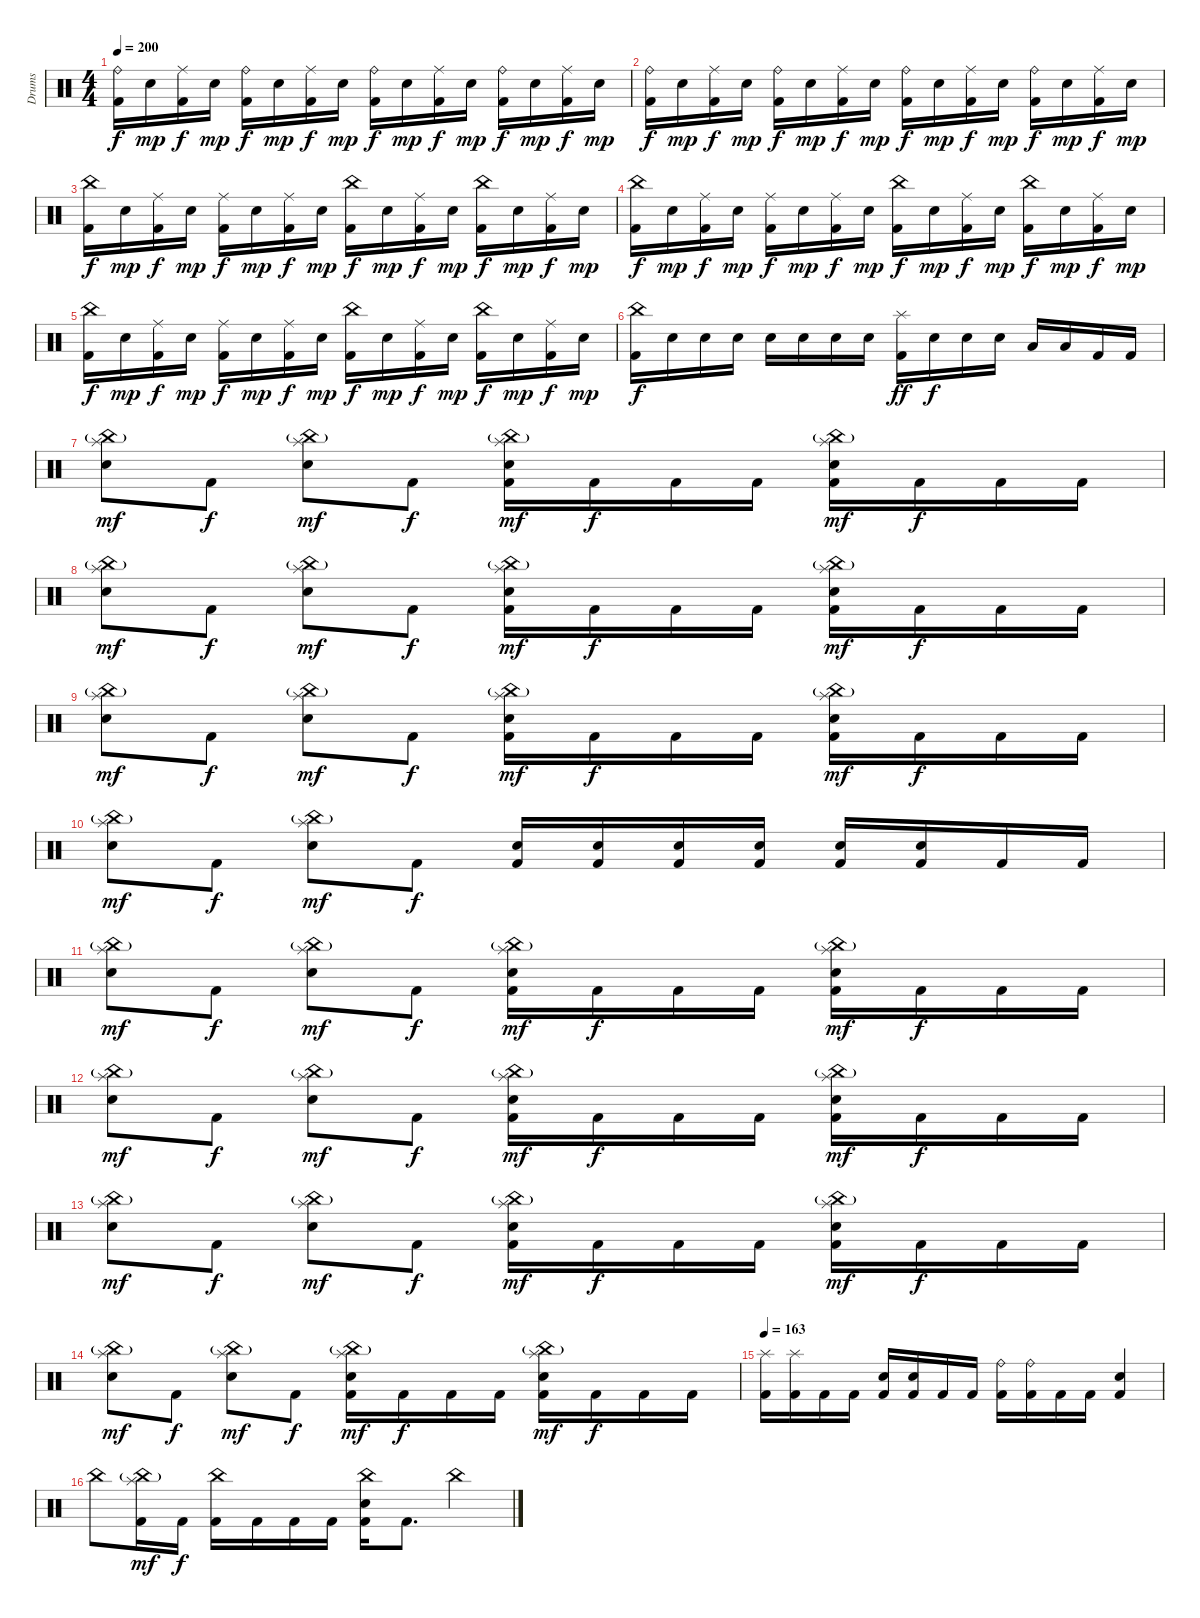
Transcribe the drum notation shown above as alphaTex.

\track ("Drums" "Drums") {instrument percussion}
\staff {score}
\articulation defaults
\ts (4 4)
\tempo 200
\clef neutral
\ks c
("Ride (bell)" "Kick (hit) 2").16{dy f} "Electric Snare (hit)".16{dy mp} ("Ride (middle)" "Kick (hit) 2").16{dy f} "Electric Snare (hit)".16{dy mp} ("Ride (bell)" "Kick (hit) 2").16{dy f} "Electric Snare (hit)".16{dy mp} ("Ride (middle)" "Kick (hit) 2").16{dy f} "Electric Snare (hit)".16{dy mp} ("Ride (bell)" "Kick (hit) 2").16{dy f} "Electric Snare (hit)".16{dy mp} ("Ride (middle)" "Kick (hit) 2").16{dy f} "Electric Snare (hit)".16{dy mp} ("Ride (bell)" "Kick (hit) 2").16{dy f} "Electric Snare (hit)".16{dy mp} ("Ride (middle)" "Kick (hit) 2").16{dy f} "Electric Snare (hit)".16{dy mp} |
("Ride (bell)" "Kick (hit) 2").16{dy f} "Electric Snare (hit)".16{dy mp} ("Ride (middle)" "Kick (hit) 2").16{dy f} "Electric Snare (hit)".16{dy mp} ("Ride (bell)" "Kick (hit) 2").16{dy f} "Electric Snare (hit)".16{dy mp} ("Ride (middle)" "Kick (hit) 2").16{dy f} "Electric Snare (hit)".16{dy mp} ("Ride (bell)" "Kick (hit) 2").16{dy f} "Electric Snare (hit)".16{dy mp} ("Ride (middle)" "Kick (hit) 2").16{dy f} "Electric Snare (hit)".16{dy mp} ("Ride (bell)" "Kick (hit) 2").16{dy f} "Electric Snare (hit)".16{dy mp} ("Ride (middle)" "Kick (hit) 2").16{dy f} "Electric Snare (hit)".16{dy mp} |
("China (hit)" "Kick (hit) 2").16{dy f} "Electric Snare (hit)".16{dy mp} ("Ride (middle)" "Kick (hit) 2").16{dy f} "Electric Snare (hit)".16{dy mp} ("Ride (middle)" "Kick (hit) 2").16{dy f} "Electric Snare (hit)".16{dy mp} ("Ride (middle)" "Kick (hit) 2").16{dy f} "Electric Snare (hit)".16{dy mp} ("China (hit)" "Kick (hit) 2").16{dy f} "Electric Snare (hit)".16{dy mp} ("Ride (middle)" "Kick (hit) 2").16{dy f} "Electric Snare (hit)".16{dy mp} ("China (hit)" "Kick (hit) 2").16{dy f} "Electric Snare (hit)".16{dy mp} ("Ride (middle)" "Kick (hit) 2").16{dy f} "Electric Snare (hit)".16{dy mp} |
("China (hit)" "Kick (hit) 2").16{dy f} "Electric Snare (hit)".16{dy mp} ("Ride (middle)" "Kick (hit) 2").16{dy f} "Electric Snare (hit)".16{dy mp} ("Ride (middle)" "Kick (hit) 2").16{dy f} "Electric Snare (hit)".16{dy mp} ("Ride (middle)" "Kick (hit) 2").16{dy f} "Electric Snare (hit)".16{dy mp} ("China (hit)" "Kick (hit) 2").16{dy f} "Electric Snare (hit)".16{dy mp} ("Ride (middle)" "Kick (hit) 2").16{dy f} "Electric Snare (hit)".16{dy mp} ("China (hit)" "Kick (hit) 2").16{dy f} "Electric Snare (hit)".16{dy mp} ("Ride (middle)" "Kick (hit) 2").16{dy f} "Electric Snare (hit)".16{dy mp} |
("China (hit)" "Kick (hit) 2").16{dy f} "Electric Snare (hit)".16{dy mp} ("Ride (middle)" "Kick (hit) 2").16{dy f} "Electric Snare (hit)".16{dy mp} ("Ride (middle)" "Kick (hit) 2").16{dy f} "Electric Snare (hit)".16{dy mp} ("Ride (middle)" "Kick (hit) 2").16{dy f} "Electric Snare (hit)".16{dy mp} ("China (hit)" "Kick (hit) 2").16{dy f} "Electric Snare (hit)".16{dy mp} ("Ride (middle)" "Kick (hit) 2").16{dy f} "Electric Snare (hit)".16{dy mp} ("China (hit)" "Kick (hit) 2").16{dy f} "Electric Snare (hit)".16{dy mp} ("Ride (middle)" "Kick (hit) 2").16{dy f} "Electric Snare (hit)".16{dy mp} |
("China (hit)" "Kick (hit) 2").16{dy f} "Electric Snare (hit)".16 "Electric Snare (hit)".16 "Electric Snare (hit)".16 "Electric Snare (hit)".16 "Electric Snare (hit)".16 "Electric Snare (hit)".16 "Electric Snare (hit)".16 ("Splash (hit)" "Kick (hit) 2").16{dy ff} "Electric Snare (hit)".16{dy f} "Electric Snare (hit)".16 "Electric Snare (hit)".16 "Low Tom (hit)".16 "Low Tom (hit)".16 "Kick (hit) 2".16 "Kick (hit) 2".16 |
("Splash (hit)" "China (hit)"{g} "Electric Snare (hit)").8{dy mf} "Kick (hit) 2".8{dy f} ("Splash (hit)" "China (hit)"{g} "Electric Snare (hit)").8{dy mf} "Kick (hit) 2".8{dy f} ("Splash (hit)" "China (hit)"{g} "Kick (hit) 2" "Electric Snare (hit)").16{dy mf} "Kick (hit) 2".16{dy f} "Kick (hit) 2".16 "Kick (hit) 2".16 ("Splash (hit)" "China (hit)"{g} "Kick (hit) 2" "Electric Snare (hit)").16{dy mf} "Kick (hit) 2".16{dy f} "Kick (hit) 2".16 "Kick (hit) 2".16 |
("Splash (hit)" "China (hit)"{g} "Electric Snare (hit)").8{dy mf} "Kick (hit) 2".8{dy f} ("Splash (hit)" "China (hit)"{g} "Electric Snare (hit)").8{dy mf} "Kick (hit) 2".8{dy f} ("Splash (hit)" "China (hit)"{g} "Kick (hit) 2" "Electric Snare (hit)").16{dy mf} "Kick (hit) 2".16{dy f} "Kick (hit) 2".16 "Kick (hit) 2".16 ("Splash (hit)" "China (hit)"{g} "Kick (hit) 2" "Electric Snare (hit)").16{dy mf} "Kick (hit) 2".16{dy f} "Kick (hit) 2".16 "Kick (hit) 2".16 |
("Splash (hit)" "China (hit)"{g} "Electric Snare (hit)").8{dy mf} "Kick (hit) 2".8{dy f} ("Splash (hit)" "China (hit)"{g} "Electric Snare (hit)").8{dy mf} "Kick (hit) 2".8{dy f} ("Splash (hit)" "China (hit)"{g} "Kick (hit) 2" "Electric Snare (hit)").16{dy mf} "Kick (hit) 2".16{dy f} "Kick (hit) 2".16 "Kick (hit) 2".16 ("Splash (hit)" "China (hit)"{g} "Kick (hit) 2" "Electric Snare (hit)").16{dy mf} "Kick (hit) 2".16{dy f} "Kick (hit) 2".16 "Kick (hit) 2".16 |
("Splash (hit)" "China (hit)"{g} "Electric Snare (hit)").8{dy mf} "Kick (hit) 2".8{dy f} ("Splash (hit)" "China (hit)"{g} "Electric Snare (hit)").8{dy mf} "Kick (hit) 2".8{dy f} ("Kick (hit) 2" "Electric Snare (hit)").16 ("Kick (hit) 2" "Electric Snare (hit)").16 ("Kick (hit) 2" "Electric Snare (hit)").16 ("Kick (hit) 2" "Electric Snare (hit)").16 ("Kick (hit) 2" "Electric Snare (hit)").16 ("Kick (hit) 2" "Electric Snare (hit)").16 "Kick (hit) 2".16 "Kick (hit) 2".16 |
("Splash (hit)" "China (hit)"{g} "Electric Snare (hit)").8{dy mf} "Kick (hit) 2".8{dy f} ("Splash (hit)" "China (hit)"{g} "Electric Snare (hit)").8{dy mf} "Kick (hit) 2".8{dy f} ("Splash (hit)" "China (hit)"{g} "Kick (hit) 2" "Electric Snare (hit)").16{dy mf} "Kick (hit) 2".16{dy f} "Kick (hit) 2".16 "Kick (hit) 2".16 ("Splash (hit)" "China (hit)"{g} "Kick (hit) 2" "Electric Snare (hit)").16{dy mf} "Kick (hit) 2".16{dy f} "Kick (hit) 2".16 "Kick (hit) 2".16 |
("Splash (hit)" "China (hit)"{g} "Electric Snare (hit)").8{dy mf} "Kick (hit) 2".8{dy f} ("Splash (hit)" "China (hit)"{g} "Electric Snare (hit)").8{dy mf} "Kick (hit) 2".8{dy f} ("Splash (hit)" "China (hit)"{g} "Kick (hit) 2" "Electric Snare (hit)").16{dy mf} "Kick (hit) 2".16{dy f} "Kick (hit) 2".16 "Kick (hit) 2".16 ("Splash (hit)" "China (hit)"{g} "Kick (hit) 2" "Electric Snare (hit)").16{dy mf} "Kick (hit) 2".16{dy f} "Kick (hit) 2".16 "Kick (hit) 2".16 |
("Splash (hit)" "China (hit)"{g} "Electric Snare (hit)").8{dy mf} "Kick (hit) 2".8{dy f} ("Splash (hit)" "China (hit)"{g} "Electric Snare (hit)").8{dy mf} "Kick (hit) 2".8{dy f} ("Splash (hit)" "China (hit)"{g} "Kick (hit) 2" "Electric Snare (hit)").16{dy mf} "Kick (hit) 2".16{dy f} "Kick (hit) 2".16 "Kick (hit) 2".16 ("Splash (hit)" "China (hit)"{g} "Kick (hit) 2" "Electric Snare (hit)").16{dy mf} "Kick (hit) 2".16{dy f} "Kick (hit) 2".16 "Kick (hit) 2".16 |
("Splash (hit)" "China (hit)"{g} "Electric Snare (hit)").8{dy mf} "Kick (hit) 2".8{dy f} ("Splash (hit)" "China (hit)"{g} "Electric Snare (hit)").8{dy mf} "Kick (hit) 2".8{dy f} ("Splash (hit)" "China (hit)"{g} "Kick (hit) 2" "Electric Snare (hit)").16{dy mf} "Kick (hit) 2".16{dy f} "Kick (hit) 2".16 "Kick (hit) 2".16 ("Splash (hit)" "China (hit)"{g} "Kick (hit) 2" "Electric Snare (hit)").16{dy mf} "Kick (hit) 2".16{dy f} "Kick (hit) 2".16 "Kick (hit) 2".16 |
\tempo 163
("Splash (hit)" "Kick (hit) 2").16 ("Splash (hit)" "Kick (hit) 2").16 "Kick (hit) 2".16 "Kick (hit) 2".16 ("Kick (hit) 2" "Electric Snare (hit)").16 ("Kick (hit) 2" "Electric Snare (hit)").16 "Kick (hit) 2".16 "Kick (hit) 2".16 ("Ride (bell)" "Kick (hit) 2").16 ("Ride (bell)" "Kick (hit) 2").16 "Kick (hit) 2".16 "Kick (hit) 2".16 ("Kick (hit) 2" "Electric Snare (hit)").4 |
"China (hit)".8 ("Splash (hit)" "China (hit)"{g} "Kick (hit) 2").16{dy mf} "Kick (hit) 2".16{dy f} ("China (hit)" "Kick (hit) 2").16 "Kick (hit) 2".16 "Kick (hit) 2".16 "Kick (hit) 2".16 ("China (hit)" "Kick (hit) 2" "Electric Snare (hit)").16 "Kick (hit) 2".8{d} "China (hit)".4
